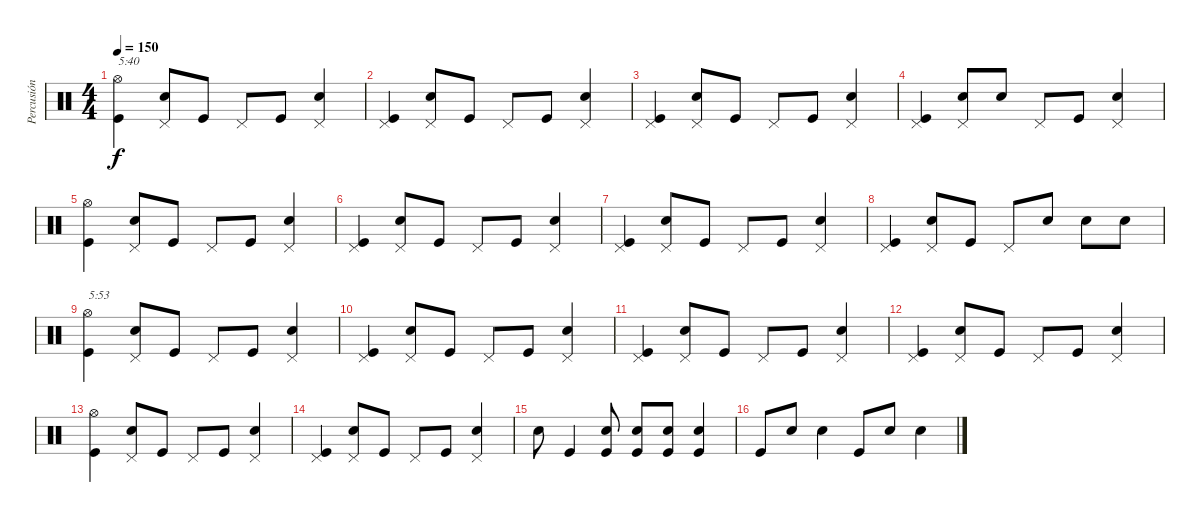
\track ("Percusión" "Percusión") {instrument percussion}
\staff {score}
\articulation defaults
\ts (4 4)
\tempo 150
\clef neutral
\ks c
("Kick (hit)" "Hi-Hat (open)").4{txt "5:40" dy f} ("Snare (hit) 2" "Pedal Hi-Hat (hit)").8 "Kick (hit)".8 "Pedal Hi-Hat (hit)".8 "Kick (hit)".8 ("Snare (hit) 2" "Pedal Hi-Hat (hit)").4 |
("Kick (hit)" "Pedal Hi-Hat (hit)").4 ("Snare (hit) 2" "Pedal Hi-Hat (hit)").8 "Kick (hit)".8 "Pedal Hi-Hat (hit)".8 "Kick (hit)".8 ("Snare (hit) 2" "Pedal Hi-Hat (hit)").4 |
("Kick (hit)" "Pedal Hi-Hat (hit)").4 ("Snare (hit) 2" "Pedal Hi-Hat (hit)").8 "Kick (hit)".8 "Pedal Hi-Hat (hit)".8 "Kick (hit)".8 ("Snare (hit) 2" "Pedal Hi-Hat (hit)").4 |
("Kick (hit)" "Pedal Hi-Hat (hit)").4 ("Snare (hit) 2" "Pedal Hi-Hat (hit)").8 "Snare (hit) 2".8 "Pedal Hi-Hat (hit)".8 "Kick (hit)".8 ("Snare (hit) 2" "Pedal Hi-Hat (hit)").4 |
("Kick (hit)" "Hi-Hat (open)").4 ("Snare (hit) 2" "Pedal Hi-Hat (hit)").8 "Kick (hit)".8 "Pedal Hi-Hat (hit)".8 "Kick (hit)".8 ("Snare (hit) 2" "Pedal Hi-Hat (hit)").4 |
("Kick (hit)" "Pedal Hi-Hat (hit)").4 ("Snare (hit) 2" "Pedal Hi-Hat (hit)").8 "Kick (hit)".8 "Pedal Hi-Hat (hit)".8 "Kick (hit)".8 ("Snare (hit) 2" "Pedal Hi-Hat (hit)").4 |
("Kick (hit)" "Pedal Hi-Hat (hit)").4 ("Snare (hit) 2" "Pedal Hi-Hat (hit)").8 "Kick (hit)".8 "Pedal Hi-Hat (hit)".8 "Kick (hit)".8 ("Snare (hit) 2" "Pedal Hi-Hat (hit)").4 |
("Kick (hit)" "Pedal Hi-Hat (hit)").4 ("Snare (hit) 2" "Pedal Hi-Hat (hit)").8 "Kick (hit)".8 "Pedal Hi-Hat (hit)".8 "Snare (hit) 2".8 "Snare (hit) 2".8 "Snare (hit) 2".8 |
("Kick (hit)" "Hi-Hat (open)").4{txt "5:53"} ("Snare (hit) 2" "Pedal Hi-Hat (hit)").8 "Kick (hit)".8 "Pedal Hi-Hat (hit)".8 "Kick (hit)".8 ("Snare (hit) 2" "Pedal Hi-Hat (hit)").4 |
("Kick (hit)" "Pedal Hi-Hat (hit)").4 ("Snare (hit) 2" "Pedal Hi-Hat (hit)").8 "Kick (hit)".8 "Pedal Hi-Hat (hit)".8 "Kick (hit)".8 ("Snare (hit) 2" "Pedal Hi-Hat (hit)").4 |
("Kick (hit)" "Pedal Hi-Hat (hit)").4 ("Snare (hit) 2" "Pedal Hi-Hat (hit)").8 "Kick (hit)".8 "Pedal Hi-Hat (hit)".8 "Kick (hit)".8 ("Snare (hit) 2" "Pedal Hi-Hat (hit)").4 |
("Kick (hit)" "Pedal Hi-Hat (hit)").4 ("Snare (hit) 2" "Pedal Hi-Hat (hit)").8 "Kick (hit)".8 "Pedal Hi-Hat (hit)".8 "Kick (hit)".8 ("Snare (hit) 2" "Pedal Hi-Hat (hit)").4 |
("Kick (hit)" "Hi-Hat (open)").4 ("Snare (hit) 2" "Pedal Hi-Hat (hit)").8 "Kick (hit)".8 "Pedal Hi-Hat (hit)".8 "Kick (hit)".8 ("Snare (hit) 2" "Pedal Hi-Hat (hit)").4 |
("Kick (hit)" "Pedal Hi-Hat (hit)").4 ("Snare (hit) 2" "Pedal Hi-Hat (hit)").8 "Kick (hit)".8 "Pedal Hi-Hat (hit)".8 "Kick (hit)".8 ("Snare (hit) 2" "Pedal Hi-Hat (hit)").4 |
"Snare (hit) 2".8 "Kick (hit)".4 ("Kick (hit)" "Snare (hit) 2").8 ("Kick (hit)" "Snare (hit) 2").8 ("Kick (hit)" "Snare (hit) 2").8 ("Kick (hit)" "Snare (hit) 2").4 |
"Kick (hit)".8 "Snare (hit) 2".8 "Snare (hit) 2".4 "Kick (hit)".8 "Snare (hit) 2".8 "Snare (hit) 2".4
